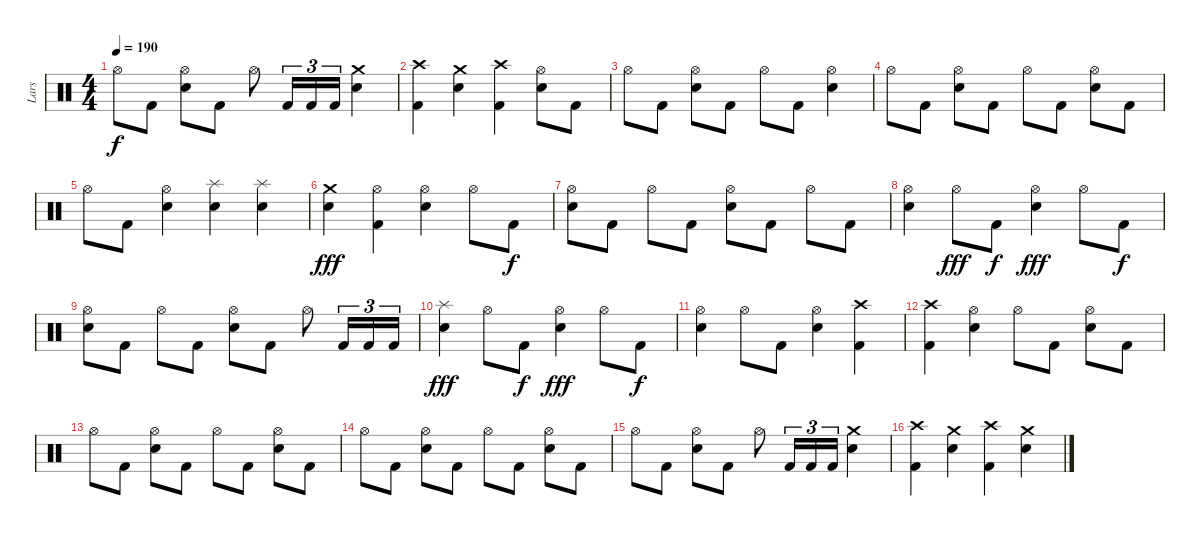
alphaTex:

\track ("Lars" "Lars") {instrument percussion}
\staff {score}
\articulation defaults
\ts (4 4)
\tempo 190
\clef neutral
\ks c "Hi-Hat (open)".8{dy f} "Kick (hit) 2".8
("Hi-Hat (open)" "Snare (hit) 2").8 "Kick (hit) 2".8 "Hi-Hat (open)".8 "Kick (hit) 2".16{tu (3 2)} "Kick (hit) 2".16{tu (3 2)} "Kick (hit) 2".16{tu (3 2)} ("Crash medium (hit)" "Snare (hit) 2").4 |
("Crash high (hit)" "Kick (hit) 2").4 ("Crash medium (hit)" "Snare (hit) 2").4 ("Crash high (hit)" "Kick (hit) 2").4 ("Hi-Hat (open)" "Snare (hit) 2").8 "Kick (hit) 2".8 |
"Hi-Hat (open)".8 "Kick (hit) 2".8 ("Hi-Hat (open)" "Snare (hit) 2").8 "Kick (hit) 2".8 "Hi-Hat (open)".8 "Kick (hit) 2".8 ("Hi-Hat (open)" "Snare (hit) 2").4 |
"Hi-Hat (open)".8 "Kick (hit) 2".8 ("Hi-Hat (open)" "Snare (hit) 2").8 "Kick (hit) 2".8 "Hi-Hat (open)".8 "Kick (hit) 2".8 ("Hi-Hat (open)" "Snare (hit) 2").8 "Kick (hit) 2".8 |
"Hi-Hat (open)".8 "Kick (hit) 2".8 ("Hi-Hat (open)" "Snare (hit) 2").4 ("Splash (hit)" "Snare (hit) 2").4 ("Splash (hit)" "Snare (hit) 2").4 |
("Crash medium (hit)" "Snare (hit) 2").4{dy fff} ("Hi-Hat (open)" "Kick (hit) 2").4 ("Hi-Hat (open)" "Snare (hit) 2").4 "Hi-Hat (open)".8 "Kick (hit) 2".8{dy f} |
("Hi-Hat (open)" "Snare (hit) 2").8 "Kick (hit) 2".8 "Hi-Hat (open)".8 "Kick (hit) 2".8 ("Hi-Hat (open)" "Snare (hit) 2").8 "Kick (hit) 2".8 "Hi-Hat (open)".8 "Kick (hit) 2".8 |
("Hi-Hat (open)" "Snare (hit) 2").4 "Hi-Hat (open)".8{dy fff} "Kick (hit) 2".8{dy f} ("Hi-Hat (open)" "Snare (hit) 2").4{dy fff} "Hi-Hat (open)".8 "Kick (hit) 2".8{dy f} |
("Hi-Hat (open)" "Snare (hit) 2").8 "Kick (hit) 2".8 "Hi-Hat (open)".8 "Kick (hit) 2".8 ("Hi-Hat (open)" "Snare (hit) 2").8 "Kick (hit) 2".8 "Hi-Hat (open)".8 "Kick (hit) 2".16{tu (3 2)} "Kick (hit) 2".16{tu (3 2)} "Kick (hit) 2".16{tu (3 2)} |
("Splash (hit)" "Snare (hit) 2").4{dy fff} "Hi-Hat (open)".8 "Kick (hit) 2".8{dy f} ("Hi-Hat (open)" "Snare (hit) 2").4{dy fff} "Hi-Hat (open)".8 "Kick (hit) 2".8{dy f} |
("Hi-Hat (open)" "Snare (hit) 2").4 "Hi-Hat (open)".8 "Kick (hit) 2".8 ("Hi-Hat (open)" "Snare (hit) 2").4 ("Crash high (hit)" "Kick (hit) 2").4 |
("Crash high (hit)" "Kick (hit) 2").4 ("Hi-Hat (open)" "Snare (hit) 2").4 "Hi-Hat (open)".8 "Kick (hit) 2".8 ("Hi-Hat (open)" "Snare (hit) 2").8 "Kick (hit) 2".8 |
"Hi-Hat (open)".8 "Kick (hit) 2".8 ("Hi-Hat (open)" "Snare (hit) 2").8 "Kick (hit) 2".8 "Hi-Hat (open)".8 "Kick (hit) 2".8 ("Hi-Hat (open)" "Snare (hit) 2").8 "Kick (hit) 2".8 |
"Hi-Hat (open)".8 "Kick (hit) 2".8 ("Hi-Hat (open)" "Snare (hit) 2").8 "Kick (hit) 2".8 "Hi-Hat (open)".8 "Kick (hit) 2".8 ("Hi-Hat (open)" "Snare (hit) 2").8 "Kick (hit) 2".8 |
"Hi-Hat (open)".8 "Kick (hit) 2".8 ("Hi-Hat (open)" "Snare (hit) 2").8 "Kick (hit) 2".8 "Hi-Hat (open)".8 "Kick (hit) 2".16{tu (3 2)} "Kick (hit) 2".16{tu (3 2)} "Kick (hit) 2".16{tu (3 2)} ("Crash medium (hit)" "Snare (hit) 2").4 |
("Crash high (hit)" "Kick (hit) 2").4 ("Crash medium (hit)" "Snare (hit) 2").4 ("Crash high (hit)" "Kick (hit) 2").4 ("Crash medium (hit)" "Snare (hit) 2").4
